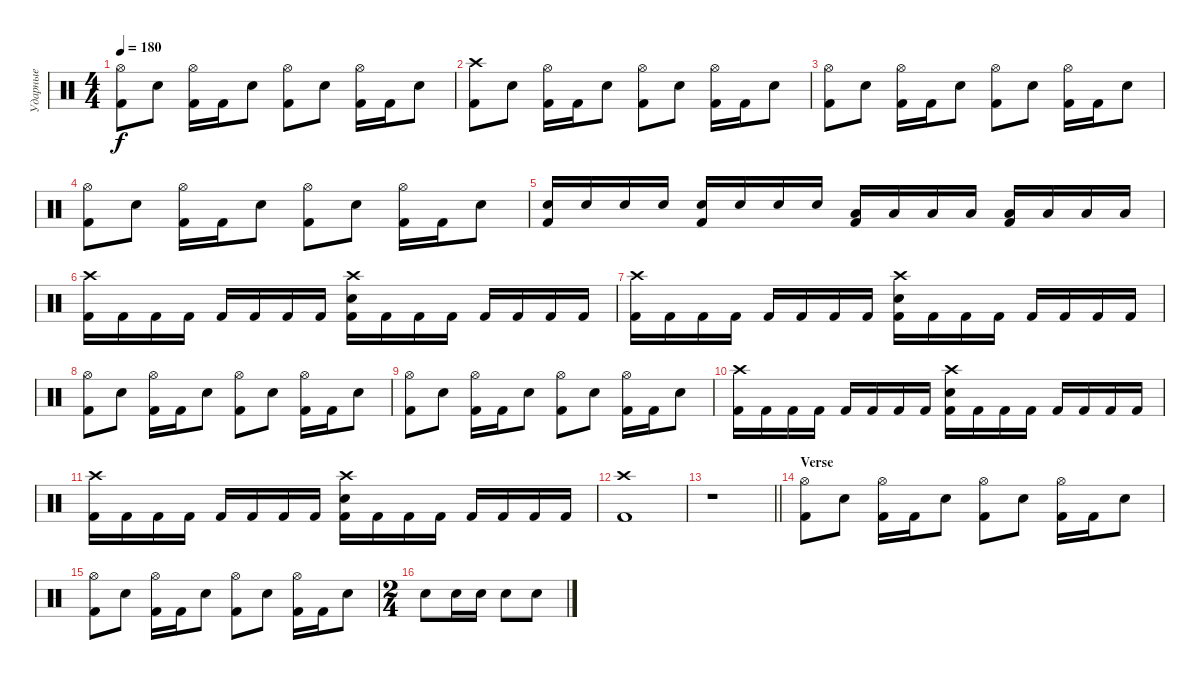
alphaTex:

\track ("Ударные" "Ударные") {instrument percussion}
\staff {score}
\articulation defaults
\ts (4 4)
\tempo 180
\clef neutral
\ks c
("Hi-Hat (open)" "Kick (hit) 2").8{dy f} "Electric Snare (hit)".8 ("Hi-Hat (open)" "Kick (hit) 2").16 "Kick (hit) 2".16 "Electric Snare (hit)".8 ("Hi-Hat (open)" "Kick (hit) 2").8 "Electric Snare (hit)".8 ("Hi-Hat (open)" "Kick (hit) 2").16 "Kick (hit) 2".16 "Electric Snare (hit)".8 |
("Crash high (hit)" "Kick (hit) 2").8 "Electric Snare (hit)".8 ("Hi-Hat (open)" "Kick (hit) 2").16 "Kick (hit) 2".16 "Electric Snare (hit)".8 ("Hi-Hat (open)" "Kick (hit) 2").8 "Electric Snare (hit)".8 ("Hi-Hat (open)" "Kick (hit) 2").16 "Kick (hit) 2".16 "Electric Snare (hit)".8 |
("Hi-Hat (open)" "Kick (hit) 2").8 "Electric Snare (hit)".8 ("Hi-Hat (open)" "Kick (hit) 2").16 "Kick (hit) 2".16 "Electric Snare (hit)".8 ("Hi-Hat (open)" "Kick (hit) 2").8 "Electric Snare (hit)".8 ("Hi-Hat (open)" "Kick (hit) 2").16 "Kick (hit) 2".16 "Electric Snare (hit)".8 |
("Hi-Hat (open)" "Kick (hit) 2").8 "Electric Snare (hit)".8 ("Hi-Hat (open)" "Kick (hit) 2").16 "Kick (hit) 2".16 "Electric Snare (hit)".8 ("Hi-Hat (open)" "Kick (hit) 2").8 "Electric Snare (hit)".8 ("Hi-Hat (open)" "Kick (hit) 2").16 "Kick (hit) 2".16 "Electric Snare (hit)".8 |
("Electric Snare (hit)" "Kick (hit) 2").16 "Electric Snare (hit)".16 "Electric Snare (hit)".16 "Electric Snare (hit)".16 ("Electric Snare (hit)" "Kick (hit) 2").16 "Electric Snare (hit)".16 "Electric Snare (hit)".16 "Electric Snare (hit)".16 ("Low Tom (hit)" "Kick (hit) 2").16 "Low Tom (hit)".16 "Low Tom (hit)".16 "Low Tom (hit)".16 ("Low Floor Tom (hit)" "Kick (hit) 2").16 "Low Floor Tom (hit)".16 "Low Floor Tom (hit)".16 "Low Floor Tom (hit)".16 |
("Crash high (hit)" "Kick (hit) 2").16 "Kick (hit) 2".16 "Kick (hit) 2".16 "Kick (hit) 2".16 "Kick (hit) 2".16 "Kick (hit) 2".16 "Kick (hit) 2".16 "Kick (hit) 2".16 ("Crash high (hit)" "Electric Snare (hit)" "Kick (hit) 2").16 "Kick (hit) 2".16 "Kick (hit) 2".16 "Kick (hit) 2".16 "Kick (hit) 2".16 "Kick (hit) 2".16 "Kick (hit) 2".16 "Kick (hit) 2".16 |
("Crash high (hit)" "Kick (hit) 2").16 "Kick (hit) 2".16 "Kick (hit) 2".16 "Kick (hit) 2".16 "Kick (hit) 2".16 "Kick (hit) 2".16 "Kick (hit) 2".16 "Kick (hit) 2".16 ("Crash high (hit)" "Electric Snare (hit)" "Kick (hit) 2").16 "Kick (hit) 2".16 "Kick (hit) 2".16 "Kick (hit) 2".16 "Kick (hit) 2".16 "Kick (hit) 2".16 "Kick (hit) 2".16 "Kick (hit) 2".16 |
("Hi-Hat (open)" "Kick (hit) 2").8 "Electric Snare (hit)".8 ("Hi-Hat (open)" "Kick (hit) 2").16 "Kick (hit) 2".16 "Electric Snare (hit)".8 ("Hi-Hat (open)" "Kick (hit) 2").8 "Electric Snare (hit)".8 ("Hi-Hat (open)" "Kick (hit) 2").16 "Kick (hit) 2".16 "Electric Snare (hit)".8 |
("Hi-Hat (open)" "Kick (hit) 2").8 "Electric Snare (hit)".8 ("Hi-Hat (open)" "Kick (hit) 2").16 "Kick (hit) 2".16 "Electric Snare (hit)".8 ("Hi-Hat (open)" "Kick (hit) 2").8 "Electric Snare (hit)".8 ("Hi-Hat (open)" "Kick (hit) 2").16 "Kick (hit) 2".16 "Electric Snare (hit)".8 |
("Crash high (hit)" "Kick (hit) 2").16 "Kick (hit) 2".16 "Kick (hit) 2".16 "Kick (hit) 2".16 "Kick (hit) 2".16 "Kick (hit) 2".16 "Kick (hit) 2".16 "Kick (hit) 2".16 ("Crash high (hit)" "Electric Snare (hit)" "Kick (hit) 2").16 "Kick (hit) 2".16 "Kick (hit) 2".16 "Kick (hit) 2".16 "Kick (hit) 2".16 "Kick (hit) 2".16 "Kick (hit) 2".16 "Kick (hit) 2".16 |
("Crash high (hit)" "Kick (hit) 2").16 "Kick (hit) 2".16 "Kick (hit) 2".16 "Kick (hit) 2".16 "Kick (hit) 2".16 "Kick (hit) 2".16 "Kick (hit) 2".16 "Kick (hit) 2".16 ("Crash high (hit)" "Electric Snare (hit)" "Kick (hit) 2").16 "Kick (hit) 2".16 "Kick (hit) 2".16 "Kick (hit) 2".16 "Kick (hit) 2".16 "Kick (hit) 2".16 "Kick (hit) 2".16 "Kick (hit) 2".16 |
("Crash high (hit)" "Kick (hit) 2").1 |
\barLineRight lightlight
r.1 |
\section ("" "Verse")
("Hi-Hat (open)" "Kick (hit) 2").8 "Electric Snare (hit)".8 ("Hi-Hat (open)" "Kick (hit) 2").16 "Kick (hit) 2".16 "Electric Snare (hit)".8 ("Hi-Hat (open)" "Kick (hit) 2").8 "Electric Snare (hit)".8 ("Hi-Hat (open)" "Kick (hit) 2").16 "Kick (hit) 2".16 "Electric Snare (hit)".8 |
("Hi-Hat (open)" "Kick (hit) 2").8 "Electric Snare (hit)".8 ("Hi-Hat (open)" "Kick (hit) 2").16 "Kick (hit) 2".16 "Electric Snare (hit)".8 ("Hi-Hat (open)" "Kick (hit) 2").8 "Electric Snare (hit)".8 ("Hi-Hat (open)" "Kick (hit) 2").16 "Kick (hit) 2".16 "Electric Snare (hit)".8 |
\ts (2 4)
"Electric Snare (hit)".8 "Electric Snare (hit)".16 "Electric Snare (hit)".16 "Electric Snare (hit)".8 "Electric Snare (hit)".8
